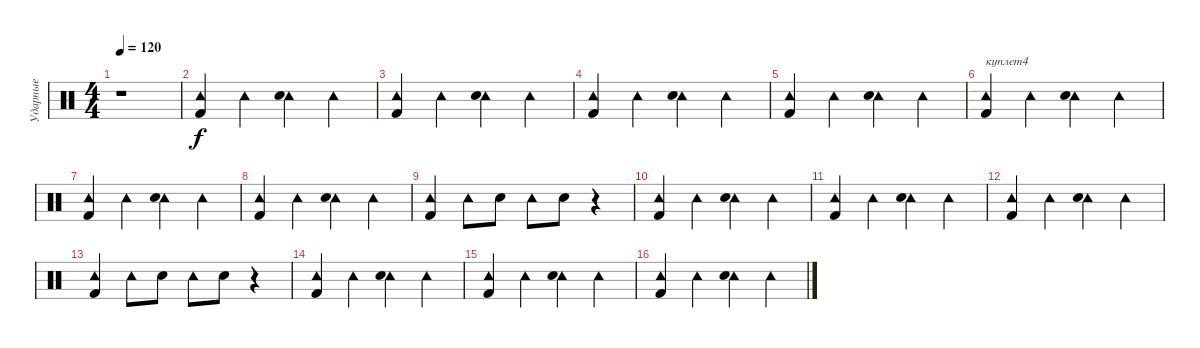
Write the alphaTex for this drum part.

\track ("Ударные" "Ударные") {instrument percussion}
\staff {score}
\articulation defaults
\ts (4 4)
\tempo 120
\clef neutral
\ks c
r.1{dy f} |
("Tambourine (hit)" "Kick (hit) 2").4 "Tambourine (hit)".4 ("Tambourine (hit)" "Electric Snare (hit)").4 "Tambourine (hit)".4 |
("Tambourine (hit)" "Kick (hit) 2").4 "Tambourine (hit)".4 ("Tambourine (hit)" "Electric Snare (hit)").4 "Tambourine (hit)".4 |
("Tambourine (hit)" "Kick (hit) 2").4 "Tambourine (hit)".4 ("Tambourine (hit)" "Electric Snare (hit)").4 "Tambourine (hit)".4 |
("Tambourine (hit)" "Kick (hit) 2").4 "Tambourine (hit)".4 ("Tambourine (hit)" "Electric Snare (hit)").4 "Tambourine (hit)".4 |
("Tambourine (hit)" "Kick (hit) 2").4{txt "куплет4"} "Tambourine (hit)".4 ("Tambourine (hit)" "Electric Snare (hit)").4 "Tambourine (hit)".4 |
("Tambourine (hit)" "Kick (hit) 2").4 "Tambourine (hit)".4 ("Tambourine (hit)" "Electric Snare (hit)").4 "Tambourine (hit)".4 |
("Tambourine (hit)" "Kick (hit) 2").4 "Tambourine (hit)".4 ("Tambourine (hit)" "Electric Snare (hit)").4 "Tambourine (hit)".4 |
("Tambourine (hit)" "Kick (hit) 2").4 "Tambourine (hit)".8 "Electric Snare (hit)".8 "Tambourine (hit)".8 "Electric Snare (hit)".8 r.4 |
("Tambourine (hit)" "Kick (hit) 2").4 "Tambourine (hit)".4 ("Tambourine (hit)" "Electric Snare (hit)").4 "Tambourine (hit)".4 |
("Tambourine (hit)" "Kick (hit) 2").4 "Tambourine (hit)".4 ("Tambourine (hit)" "Electric Snare (hit)").4 "Tambourine (hit)".4 |
("Tambourine (hit)" "Kick (hit) 2").4 "Tambourine (hit)".4 ("Tambourine (hit)" "Electric Snare (hit)").4 "Tambourine (hit)".4 |
("Tambourine (hit)" "Kick (hit) 2").4 "Tambourine (hit)".8 "Electric Snare (hit)".8 "Tambourine (hit)".8 "Electric Snare (hit)".8 r.4 |
("Tambourine (hit)" "Kick (hit) 2").4 "Tambourine (hit)".4 ("Tambourine (hit)" "Electric Snare (hit)").4 "Tambourine (hit)".4 |
("Tambourine (hit)" "Kick (hit) 2").4 "Tambourine (hit)".4 ("Tambourine (hit)" "Electric Snare (hit)").4 "Tambourine (hit)".4 |
("Tambourine (hit)" "Kick (hit) 2").4 "Tambourine (hit)".4 ("Tambourine (hit)" "Electric Snare (hit)").4 "Tambourine (hit)".4
